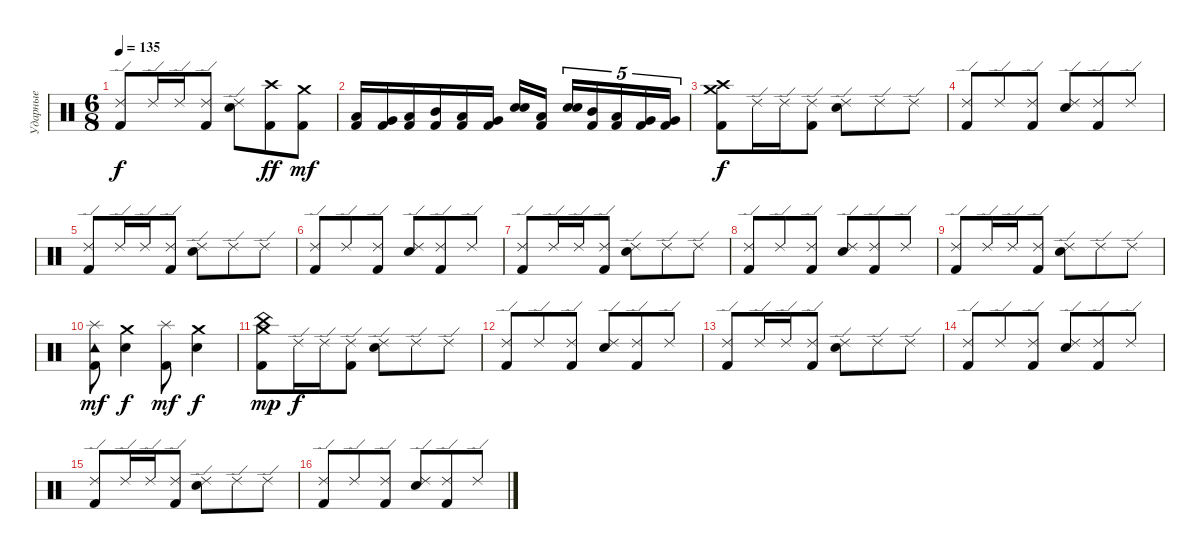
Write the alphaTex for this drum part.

\track ("Ударные" "Ударные") {instrument percussion}
\staff {score}
\articulation defaults
\ts (6 8)
\tempo 135
\clef neutral
\ks c
("Ride (edge) 2" "Kick (hit) 2").8{dy f} "Ride (edge) 2".16 "Ride (edge) 2".16 ("Ride (edge) 2" "Kick (hit) 2").8 ("Ride (edge) 2" "Electric Snare (hit)").8 ("Crash high (hit)" "Kick (hit) 2").8{dy ff} ("Crash medium (hit)" "Kick (hit) 2").8{dy mf} |
("Low Tom (hit)" "Kick (hit) 2").16 ("Very Low Tom (hit)" "Kick (hit) 2").16 ("Low Tom (hit)" "Kick (hit) 2").16 ("Mid Tom (hit)" "Kick (hit) 2").16 ("Low Tom (hit)" "Kick (hit) 2").16 ("Very Low Tom (hit)" "Kick (hit) 2").16 ("Snare (hit) 2" "Electric Snare (hit)").16 ("Low Floor Tom (hit)" "Kick (hit) 2").16 ("Snare (hit) 2" "Electric Snare (hit)").16{tu (5 4)} ("Mid Tom (hit)" "Kick (hit) 2").16{tu (5 4)} ("Low Tom (hit)" "Kick (hit) 2").16{tu (5 4)} ("Very Low Tom (hit)" "Kick (hit) 2").16{tu (5 4)} ("Very Low Tom (hit)" "Kick (hit) 2").16{tu (5 4)} |
\section ("" "")
("Crash high (hit)" "Crash medium (hit)" "Kick (hit) 2").8{dy f} "Ride (edge) 2".16 "Ride (edge) 2".16 ("Ride (edge) 2" "Kick (hit) 2").8 ("Ride (edge) 2" "Electric Snare (hit)").8 "Ride (edge) 2".8 "Ride (edge) 2".8 |
("Ride (edge) 2" "Kick (hit) 2").8 "Ride (edge) 2".8 ("Ride (edge) 2" "Kick (hit) 2").8 ("Ride (edge) 2" "Electric Snare (hit)").8 ("Ride (edge) 2" "Kick (hit) 2").8 "Ride (edge) 2".8 |
("Ride (edge) 2" "Kick (hit) 2").8 "Ride (edge) 2".16 "Ride (edge) 2".16 ("Ride (edge) 2" "Kick (hit) 2").8 ("Ride (edge) 2" "Electric Snare (hit)").8 "Ride (edge) 2".8 "Ride (edge) 2".8 |
("Ride (edge) 2" "Kick (hit) 2").8 "Ride (edge) 2".8 ("Ride (edge) 2" "Kick (hit) 2").8 ("Ride (edge) 2" "Electric Snare (hit)").8 ("Ride (edge) 2" "Kick (hit) 2").8 "Ride (edge) 2".8 |
("Ride (edge) 2" "Kick (hit) 2").8 "Ride (edge) 2".16 "Ride (edge) 2".16 ("Ride (edge) 2" "Kick (hit) 2").8 ("Ride (edge) 2" "Electric Snare (hit)").8 "Ride (edge) 2".8 "Ride (edge) 2".8 |
("Ride (edge) 2" "Kick (hit) 2").8 "Ride (edge) 2".8 ("Ride (edge) 2" "Kick (hit) 2").8 ("Ride (edge) 2" "Electric Snare (hit)").8 ("Ride (edge) 2" "Kick (hit) 2").8 "Ride (edge) 2".8 |
("Ride (edge) 2" "Kick (hit) 2").8 "Ride (edge) 2".16 "Ride (edge) 2".16 ("Ride (edge) 2" "Kick (hit) 2").8 ("Ride (edge) 2" "Electric Snare (hit)").8 "Ride (edge) 2".8 "Ride (edge) 2".8 |
("Kick (hit) 2" "Tambourine (hit)" "Splash (hit)").8{dy mf} ("Electric Snare (hit)" "Crash medium (hit)").4{dy f} ("Kick (hit) 2" "Splash (hit)").8{dy mf} ("Electric Snare (hit)" "Crash medium (hit)").4{dy f} |
("Crash medium (hit)" "China (hit)" "Kick (hit) 2").8{dy mp} "Ride (edge) 2".16{dy f} "Ride (edge) 2".16 ("Ride (edge) 2" "Kick (hit) 2").8 ("Ride (edge) 2" "Electric Snare (hit)").8 "Ride (edge) 2".8 "Ride (edge) 2".8 |
("Ride (edge) 2" "Kick (hit) 2").8 "Ride (edge) 2".8 ("Ride (edge) 2" "Kick (hit) 2").8 ("Ride (edge) 2" "Electric Snare (hit)").8 ("Ride (edge) 2" "Kick (hit) 2").8 "Ride (edge) 2".8 |
("Ride (edge) 2" "Kick (hit) 2").8 "Ride (edge) 2".16 "Ride (edge) 2".16 ("Ride (edge) 2" "Kick (hit) 2").8 ("Ride (edge) 2" "Electric Snare (hit)").8 "Ride (edge) 2".8 "Ride (edge) 2".8 |
("Ride (edge) 2" "Kick (hit) 2").8 "Ride (edge) 2".8 ("Ride (edge) 2" "Kick (hit) 2").8 ("Ride (edge) 2" "Electric Snare (hit)").8 ("Ride (edge) 2" "Kick (hit) 2").8 "Ride (edge) 2".8 |
("Ride (edge) 2" "Kick (hit) 2").8 "Ride (edge) 2".16 "Ride (edge) 2".16 ("Ride (edge) 2" "Kick (hit) 2").8 ("Ride (edge) 2" "Electric Snare (hit)").8 "Ride (edge) 2".8 "Ride (edge) 2".8 |
("Ride (edge) 2" "Kick (hit) 2").8 "Ride (edge) 2".8 ("Ride (edge) 2" "Kick (hit) 2").8 ("Ride (edge) 2" "Electric Snare (hit)").8 ("Ride (edge) 2" "Kick (hit) 2").8 "Ride (edge) 2".8
